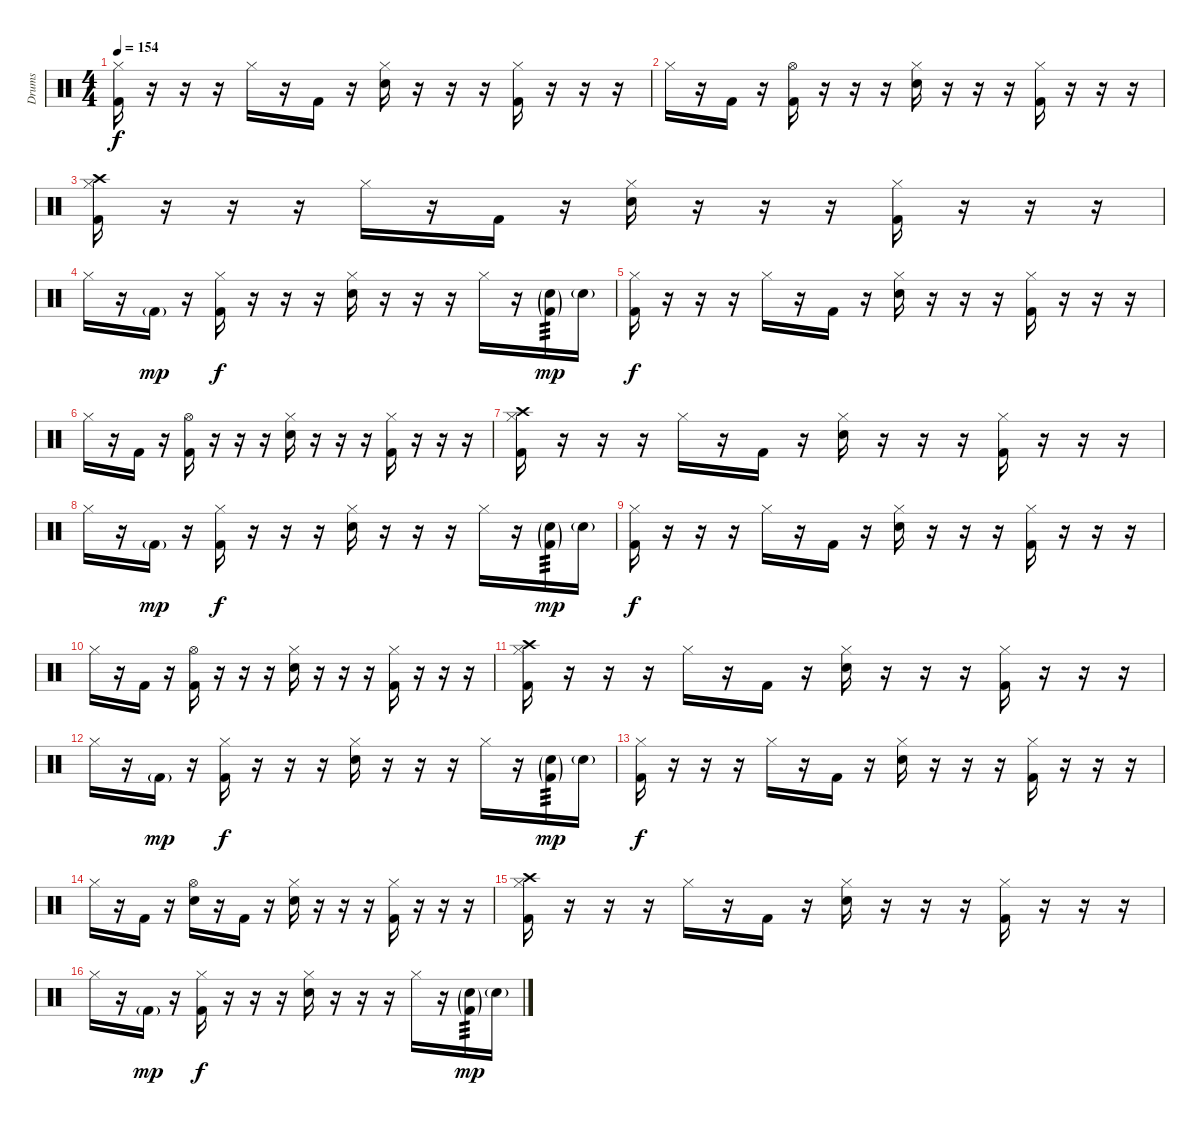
\track ("Drums" "Drums") {instrument percussion}
\staff {score}
\articulation defaults
\ts (4 4)
\tempo 154
\clef neutral
\ks c
("Hi-Hat (closed)" "Kick (hit) 2").16{dy f} r.16 r.16 r.16 "Hi-Hat (closed)".16 r.16 "Kick (hit) 2".16 r.16 ("Hi-Hat (closed)" "Electric Snare (hit)").16 r.16 r.16 r.16 ("Hi-Hat (closed)" "Kick (hit) 2").16 r.16 r.16 r.16 |
"Hi-Hat (closed)".16 r.16 "Kick (hit) 2".16 r.16 ("Hi-Hat (open)" "Kick (hit) 2").16 r.16 r.16 r.16 ("Hi-Hat (closed)" "Electric Snare (hit)").16 r.16 r.16 r.16 ("Hi-Hat (closed)" "Kick (hit) 2").16 r.16 r.16 r.16 |
("Crash high (hit)" "Hi-Hat (closed)" "Kick (hit) 2").16 r.16 r.16 r.16 "Hi-Hat (closed)".16 r.16 "Kick (hit) 2".16 r.16 ("Hi-Hat (closed)" "Electric Snare (hit)").16 r.16 r.16 r.16 ("Hi-Hat (closed)" "Kick (hit) 2").16 r.16 r.16 r.16 |
"Hi-Hat (closed)".16 r.16 "Kick (hit) 2"{g}.16{dy mp} r.16 ("Hi-Hat (closed)" "Kick (hit) 2").16{dy f} r.16 r.16 r.16 ("Hi-Hat (closed)" "Electric Snare (hit)").16 r.16 r.16 r.16 "Hi-Hat (closed)".16 r.16 ("Electric Snare (hit)"{g} "Kick (hit) 2"{g}).16{tp 3 dy mp} "Electric Snare (hit)"{g}.16 |
("Hi-Hat (closed)" "Kick (hit) 2").16{dy f} r.16 r.16 r.16 "Hi-Hat (closed)".16 r.16 "Kick (hit) 2".16 r.16 ("Hi-Hat (closed)" "Electric Snare (hit)").16 r.16 r.16 r.16 ("Hi-Hat (closed)" "Kick (hit) 2").16 r.16 r.16 r.16 |
"Hi-Hat (closed)".16 r.16 "Kick (hit) 2".16 r.16 ("Hi-Hat (open)" "Kick (hit) 2").16 r.16 r.16 r.16 ("Hi-Hat (closed)" "Electric Snare (hit)").16 r.16 r.16 r.16 ("Hi-Hat (closed)" "Kick (hit) 2").16 r.16 r.16 r.16 |
("Crash high (hit)" "Hi-Hat (closed)" "Kick (hit) 2").16 r.16 r.16 r.16 "Hi-Hat (closed)".16 r.16 "Kick (hit) 2".16 r.16 ("Hi-Hat (closed)" "Electric Snare (hit)").16 r.16 r.16 r.16 ("Hi-Hat (closed)" "Kick (hit) 2").16 r.16 r.16 r.16 |
"Hi-Hat (closed)".16 r.16 "Kick (hit) 2"{g}.16{dy mp} r.16 ("Hi-Hat (closed)" "Kick (hit) 2").16{dy f} r.16 r.16 r.16 ("Hi-Hat (closed)" "Electric Snare (hit)").16 r.16 r.16 r.16 "Hi-Hat (closed)".16 r.16 ("Electric Snare (hit)"{g} "Kick (hit) 2"{g}).16{tp 3 dy mp} "Electric Snare (hit)"{g}.16 |
("Hi-Hat (closed)" "Kick (hit) 2").16{dy f} r.16 r.16 r.16 "Hi-Hat (closed)".16 r.16 "Kick (hit) 2".16 r.16 ("Hi-Hat (closed)" "Electric Snare (hit)").16 r.16 r.16 r.16 ("Hi-Hat (closed)" "Kick (hit) 2").16 r.16 r.16 r.16 |
"Hi-Hat (closed)".16 r.16 "Kick (hit) 2".16 r.16 ("Hi-Hat (open)" "Kick (hit) 2").16 r.16 r.16 r.16 ("Hi-Hat (closed)" "Electric Snare (hit)").16 r.16 r.16 r.16 ("Hi-Hat (closed)" "Kick (hit) 2").16 r.16 r.16 r.16 |
("Crash high (hit)" "Hi-Hat (closed)" "Kick (hit) 2").16 r.16 r.16 r.16 "Hi-Hat (closed)".16 r.16 "Kick (hit) 2".16 r.16 ("Hi-Hat (closed)" "Electric Snare (hit)").16 r.16 r.16 r.16 ("Hi-Hat (closed)" "Kick (hit) 2").16 r.16 r.16 r.16 |
"Hi-Hat (closed)".16 r.16 "Kick (hit) 2"{g}.16{dy mp} r.16 ("Hi-Hat (closed)" "Kick (hit) 2").16{dy f} r.16 r.16 r.16 ("Hi-Hat (closed)" "Electric Snare (hit)").16 r.16 r.16 r.16 "Hi-Hat (closed)".16 r.16 ("Electric Snare (hit)"{g} "Kick (hit) 2"{g}).16{tp 3 dy mp} "Electric Snare (hit)"{g}.16 |
("Hi-Hat (closed)" "Kick (hit) 2").16{dy f} r.16 r.16 r.16 "Hi-Hat (closed)".16 r.16 "Kick (hit) 2".16 r.16 ("Hi-Hat (closed)" "Electric Snare (hit)").16 r.16 r.16 r.16 ("Hi-Hat (closed)" "Kick (hit) 2").16 r.16 r.16 r.16 |
"Hi-Hat (closed)".16 r.16 "Kick (hit) 2".16 r.16 ("Hi-Hat (open)" "Electric Snare (hit)").16 r.16 "Kick (hit) 2".16 r.16 ("Hi-Hat (closed)" "Electric Snare (hit)").16 r.16 r.16 r.16 ("Hi-Hat (closed)" "Kick (hit) 2").16 r.16 r.16 r.16 |
("Crash high (hit)" "Hi-Hat (closed)" "Kick (hit) 2").16 r.16 r.16 r.16 "Hi-Hat (closed)".16 r.16 "Kick (hit) 2".16 r.16 ("Hi-Hat (closed)" "Electric Snare (hit)").16 r.16 r.16 r.16 ("Hi-Hat (closed)" "Kick (hit) 2").16 r.16 r.16 r.16 |
"Hi-Hat (closed)".16 r.16 "Kick (hit) 2"{g}.16{dy mp} r.16 ("Hi-Hat (closed)" "Kick (hit) 2").16{dy f} r.16 r.16 r.16 ("Hi-Hat (closed)" "Electric Snare (hit)").16 r.16 r.16 r.16 "Hi-Hat (closed)".16 r.16 ("Electric Snare (hit)"{g} "Kick (hit) 2"{g}).16{tp 3 dy mp} "Electric Snare (hit)"{g}.16
